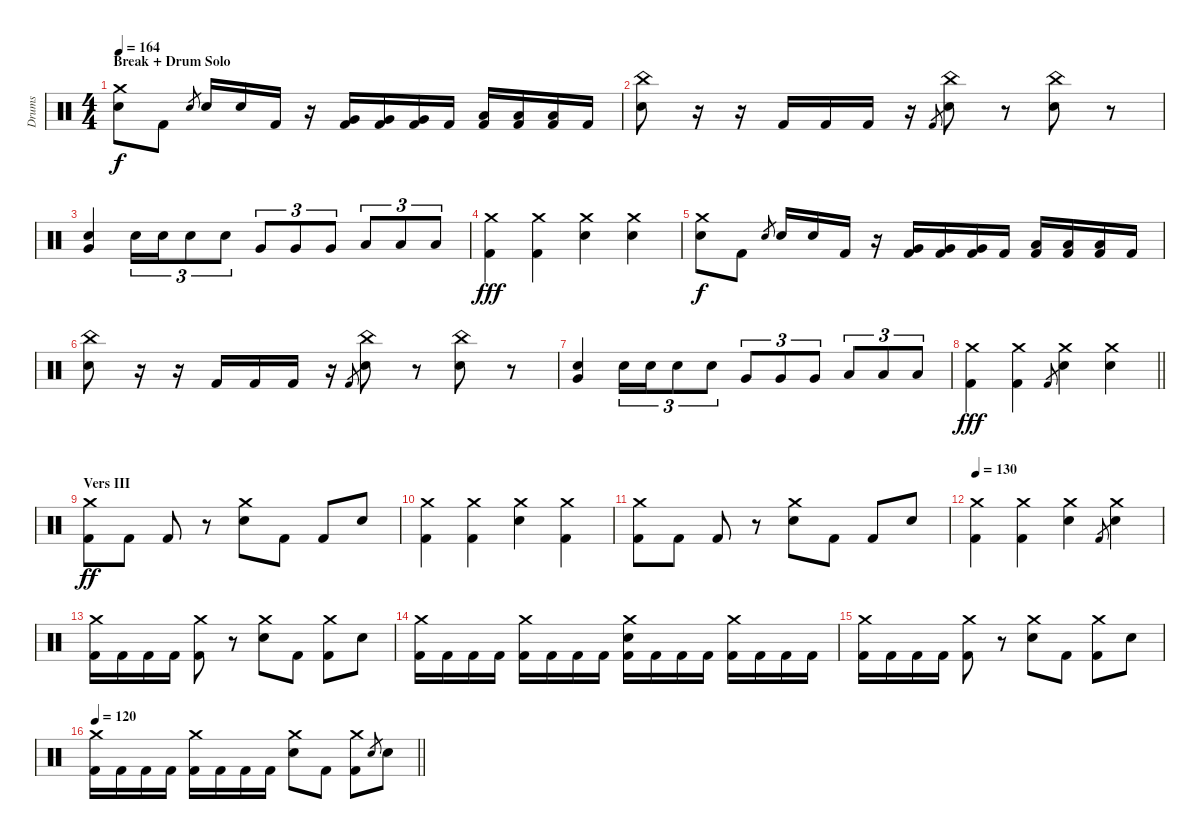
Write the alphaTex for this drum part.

\track ("Drums" "Drums") {instrument percussion}
\staff {score}
\articulation defaults
\ts (4 4)
\section ("" "Break + Drum Solo")
\tempo 164
\clef neutral
\ks c
("Crash medium (hit)" "Electric Snare (hit)").8{dy f} "Kick (hit) 2".8 "Electric Snare (hit)".8{gr} "Electric Snare (hit)".16 "Electric Snare (hit)".16 "Kick (hit) 2".16 r.16 ("Very Low Tom (hit)" "Kick (hit) 2").16 ("Very Low Tom (hit)" "Kick (hit) 2").16 ("Very Low Tom (hit)" "Kick (hit) 2").16 "Kick (hit) 2".16 ("Low Floor Tom (hit)" "Kick (hit) 2").16 ("Low Floor Tom (hit)" "Kick (hit) 2").16 ("Low Floor Tom (hit)" "Kick (hit) 2").16 "Kick (hit) 2".16 |
("China (hit)" "Electric Snare (hit)").8 r.16 r.16 "Kick (hit) 2".16 "Kick (hit) 2".16 "Kick (hit) 2".16 r.16 "Kick (hit) 2".8{gr} ("China (hit)" "Electric Snare (hit)").8 r.8 ("China (hit)" "Electric Snare (hit)").8 r.8 |
("Very Low Tom (hit)" "Electric Snare (hit)").4 "Electric Snare (hit)".16{tu (3 2)} "Electric Snare (hit)".16{tu (3 2)} "Electric Snare (hit)".8{tu (3 2)} "Electric Snare (hit)".8{tu (3 2)} "Very Low Tom (hit)".8{tu (3 2)} "Very Low Tom (hit)".8{tu (3 2)} "Very Low Tom (hit)".8{tu (3 2)} "Low Floor Tom (hit)".8{tu (3 2)} "Low Floor Tom (hit)".8{tu (3 2)} "Low Floor Tom (hit)".8{tu (3 2)} |
("Crash medium (hit)" "Kick (hit) 2").4{dy fff} ("Crash medium (hit)" "Kick (hit) 2").4 ("Crash medium (hit)" "Electric Snare (hit)").4 ("Crash medium (hit)" "Electric Snare (hit)").4 |
("Crash medium (hit)" "Electric Snare (hit)").8{dy f} "Kick (hit) 2".8 "Electric Snare (hit)".8{gr} "Electric Snare (hit)".16 "Electric Snare (hit)".16 "Kick (hit) 2".16 r.16 ("Very Low Tom (hit)" "Kick (hit) 2").16 ("Very Low Tom (hit)" "Kick (hit) 2").16 ("Very Low Tom (hit)" "Kick (hit) 2").16 "Kick (hit) 2".16 ("Low Floor Tom (hit)" "Kick (hit) 2").16 ("Low Floor Tom (hit)" "Kick (hit) 2").16 ("Low Floor Tom (hit)" "Kick (hit) 2").16 "Kick (hit) 2".16 |
("China (hit)" "Electric Snare (hit)").8 r.16 r.16 "Kick (hit) 2".16 "Kick (hit) 2".16 "Kick (hit) 2".16 r.16 "Kick (hit) 2".8{gr} ("China (hit)" "Electric Snare (hit)").8 r.8 ("China (hit)" "Electric Snare (hit)").8 r.8 |
("Very Low Tom (hit)" "Electric Snare (hit)").4 "Electric Snare (hit)".16{tu (3 2)} "Electric Snare (hit)".16{tu (3 2)} "Electric Snare (hit)".8{tu (3 2)} "Electric Snare (hit)".8{tu (3 2)} "Very Low Tom (hit)".8{tu (3 2)} "Very Low Tom (hit)".8{tu (3 2)} "Very Low Tom (hit)".8{tu (3 2)} "Low Floor Tom (hit)".8{tu (3 2)} "Low Floor Tom (hit)".8{tu (3 2)} "Low Floor Tom (hit)".8{tu (3 2)} |
\barLineRight lightlight
("Crash medium (hit)" "Kick (hit) 2").4{dy fff} ("Crash medium (hit)" "Kick (hit) 2").4 "Kick (hit) 2".8{gr} ("Crash medium (hit)" "Electric Snare (hit)").4 ("Crash medium (hit)" "Electric Snare (hit)").4 |
\section ("" "Vers III")
("Crash medium (hit)" "Kick (hit) 2").8{dy ff} "Kick (hit) 2".8 "Kick (hit) 2".8 r.8 ("Crash medium (hit)" "Electric Snare (hit)").8 "Kick (hit) 2".8 "Kick (hit) 2".8 "Electric Snare (hit)".8 |
("Crash medium (hit)" "Kick (hit) 2").4 ("Crash medium (hit)" "Kick (hit) 2").4 ("Crash medium (hit)" "Electric Snare (hit)").4 ("Crash medium (hit)" "Kick (hit) 2").4 |
("Crash medium (hit)" "Kick (hit) 2").8 "Kick (hit) 2".8 "Kick (hit) 2".8 r.8 ("Crash medium (hit)" "Electric Snare (hit)").8 "Kick (hit) 2".8 "Kick (hit) 2".8 "Electric Snare (hit)".8 |
\tempo 130
("Crash medium (hit)" "Kick (hit) 2").4 ("Crash medium (hit)" "Kick (hit) 2").4 ("Crash medium (hit)" "Electric Snare (hit)").4 "Kick (hit) 2".8{gr} ("Crash medium (hit)" "Electric Snare (hit)").4 |
("Crash medium (hit)" "Kick (hit) 2").16 "Kick (hit) 2".16 "Kick (hit) 2".16 "Kick (hit) 2".16 ("Crash medium (hit)" "Kick (hit) 2").8 r.8 ("Crash medium (hit)" "Electric Snare (hit)").8 "Kick (hit) 2".8 ("Crash medium (hit)" "Kick (hit) 2").8 "Electric Snare (hit)".8 |
("Crash medium (hit)" "Kick (hit) 2").16 "Kick (hit) 2".16 "Kick (hit) 2".16 "Kick (hit) 2".16 ("Crash medium (hit)" "Kick (hit) 2").16 "Kick (hit) 2".16 "Kick (hit) 2".16 "Kick (hit) 2".16 ("Crash medium (hit)" "Electric Snare (hit)" "Kick (hit) 2").16 "Kick (hit) 2".16 "Kick (hit) 2".16 "Kick (hit) 2".16 ("Crash medium (hit)" "Kick (hit) 2").16 "Kick (hit) 2".16 "Kick (hit) 2".16 "Kick (hit) 2".16 |
("Crash medium (hit)" "Kick (hit) 2").16 "Kick (hit) 2".16 "Kick (hit) 2".16 "Kick (hit) 2".16 ("Crash medium (hit)" "Kick (hit) 2").8 r.8 ("Crash medium (hit)" "Electric Snare (hit)").8 "Kick (hit) 2".8 ("Crash medium (hit)" "Kick (hit) 2").8 "Electric Snare (hit)".8 |
\tempo 120
\barLineRight lightlight
("Crash medium (hit)" "Kick (hit) 2").16 "Kick (hit) 2".16 "Kick (hit) 2".16 "Kick (hit) 2".16 ("Crash medium (hit)" "Kick (hit) 2").16 "Kick (hit) 2".16 "Kick (hit) 2".16 "Kick (hit) 2".16 ("Crash medium (hit)" "Electric Snare (hit)").8 "Kick (hit) 2".8 ("Crash medium (hit)" "Kick (hit) 2").8 "Electric Snare (hit)".8{gr} "Electric Snare (hit)".8
